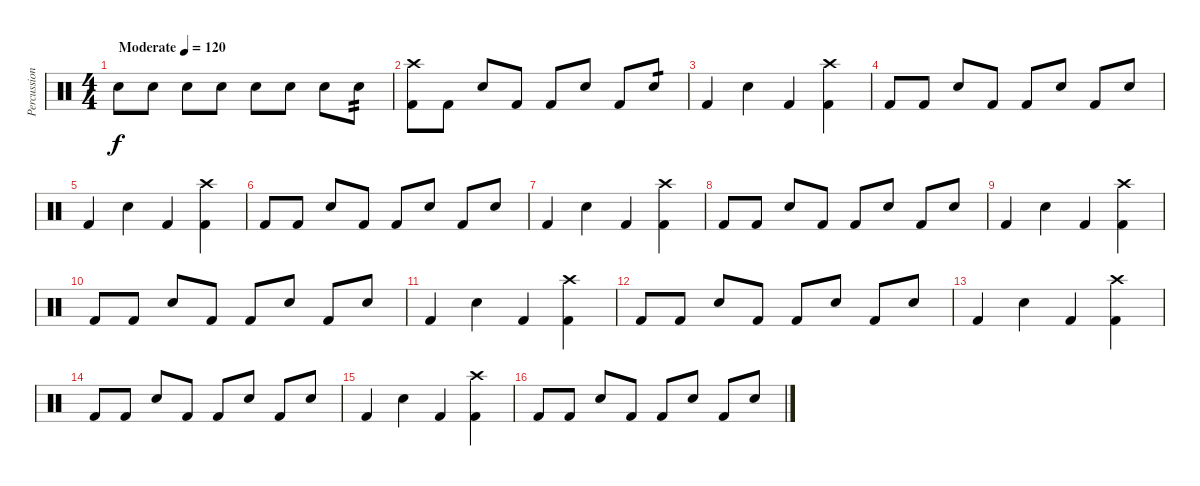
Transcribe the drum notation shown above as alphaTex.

\track ("Percussion" "Percussion") {instrument percussion}
\staff {score}
\articulation defaults
\ts (4 4)
\tempo (120 "Moderate")
\clef neutral
\ks c "Snare (hit) 2".8{dy f} "Snare (hit) 2".8 "Snare (hit) 2".8 "Snare (hit) 2".8 "Snare (hit) 2".8 "Snare (hit) 2".8 "Snare (hit) 2".8 "Snare (hit) 2".8{tp 2}
|
("Kick (hit) 2" "Crash high (hit)").8 "Kick (hit) 2".8 "Snare (hit) 2".8 "Kick (hit) 2".8 "Kick (hit) 2".8 "Snare (hit) 2".8 "Kick (hit) 2".8 "Snare (hit) 2".8{tp 1} |
"Kick (hit) 2".4 "Snare (hit) 2".4 "Kick (hit) 2".4 ("Kick (hit) 2" "Crash high (hit)").4 |
"Kick (hit) 2".8 "Kick (hit) 2".8 "Snare (hit) 2".8 "Kick (hit) 2".8 "Kick (hit) 2".8 "Snare (hit) 2".8 "Kick (hit) 2".8 "Snare (hit) 2".8 |
"Kick (hit) 2".4 "Snare (hit) 2".4 "Kick (hit) 2".4 ("Kick (hit) 2" "Crash high (hit)").4 |
"Kick (hit) 2".8 "Kick (hit) 2".8 "Snare (hit) 2".8 "Kick (hit) 2".8 "Kick (hit) 2".8 "Snare (hit) 2".8 "Kick (hit) 2".8 "Snare (hit) 2".8 |
"Kick (hit) 2".4 "Snare (hit) 2".4 "Kick (hit) 2".4 ("Kick (hit) 2" "Crash high (hit)").4 |
"Kick (hit) 2".8 "Kick (hit) 2".8 "Snare (hit) 2".8 "Kick (hit) 2".8 "Kick (hit) 2".8 "Snare (hit) 2".8 "Kick (hit) 2".8 "Snare (hit) 2".8 |
"Kick (hit) 2".4 "Snare (hit) 2".4 "Kick (hit) 2".4 ("Kick (hit) 2" "Crash high (hit)").4 |
"Kick (hit) 2".8 "Kick (hit) 2".8 "Snare (hit) 2".8 "Kick (hit) 2".8 "Kick (hit) 2".8 "Snare (hit) 2".8 "Kick (hit) 2".8 "Snare (hit) 2".8 |
"Kick (hit) 2".4 "Snare (hit) 2".4 "Kick (hit) 2".4 ("Kick (hit) 2" "Crash high (hit)").4 |
"Kick (hit) 2".8 "Kick (hit) 2".8 "Snare (hit) 2".8 "Kick (hit) 2".8 "Kick (hit) 2".8 "Snare (hit) 2".8 "Kick (hit) 2".8 "Snare (hit) 2".8 |
"Kick (hit) 2".4 "Snare (hit) 2".4 "Kick (hit) 2".4 ("Kick (hit) 2" "Crash high (hit)").4 |
"Kick (hit) 2".8 "Kick (hit) 2".8 "Snare (hit) 2".8 "Kick (hit) 2".8 "Kick (hit) 2".8 "Snare (hit) 2".8 "Kick (hit) 2".8 "Snare (hit) 2".8 |
"Kick (hit) 2".4 "Snare (hit) 2".4 "Kick (hit) 2".4 ("Kick (hit) 2" "Crash high (hit)").4 |
"Kick (hit) 2".8 "Kick (hit) 2".8 "Snare (hit) 2".8 "Kick (hit) 2".8 "Kick (hit) 2".8 "Snare (hit) 2".8 "Kick (hit) 2".8 "Snare (hit) 2".8
